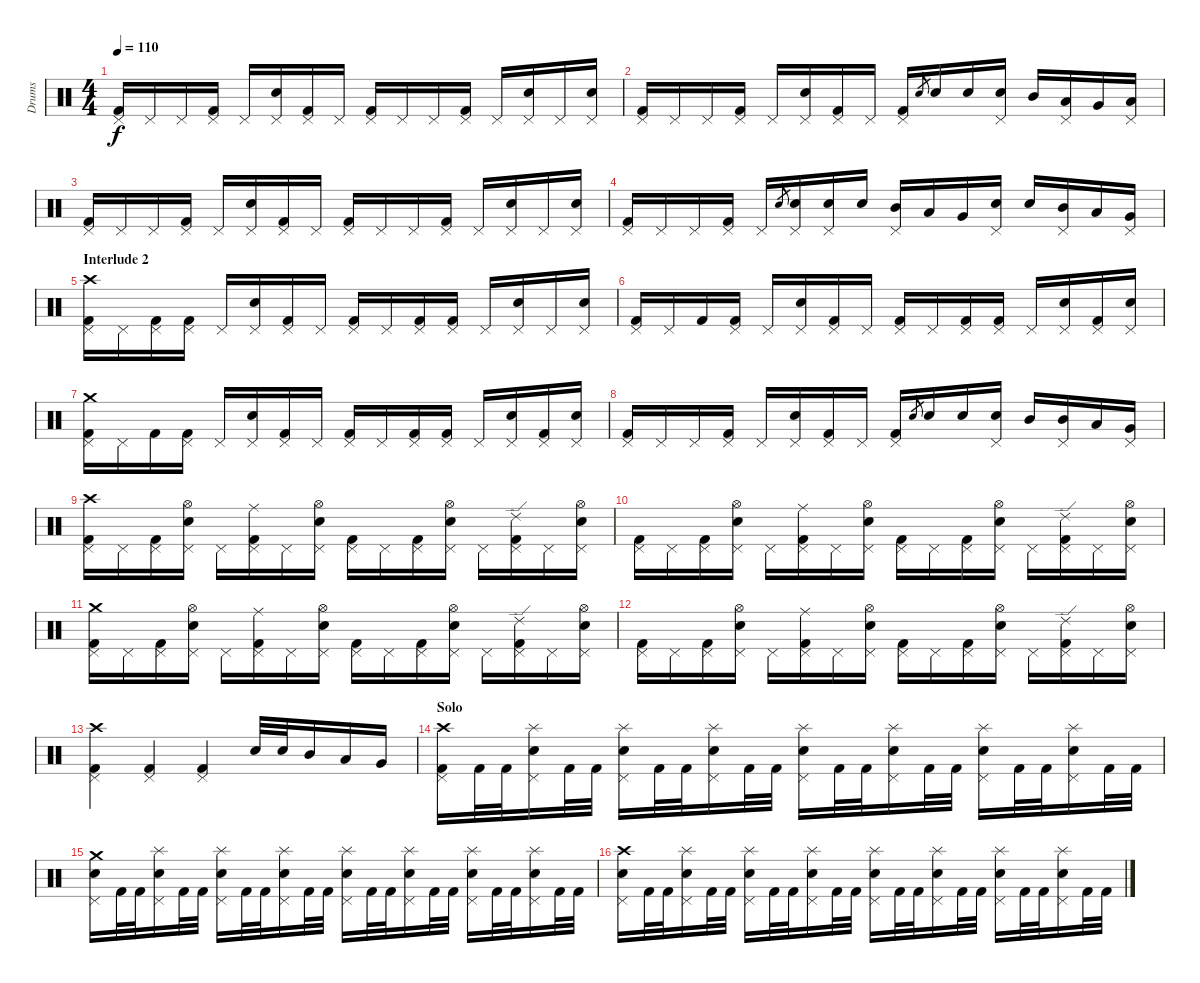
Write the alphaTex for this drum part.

\track ("Drums" "Drums") {instrument percussion}
\staff {score}
\articulation defaults
\ts (4 4)
\tempo 110
\clef neutral
\ks c
("Kick (hit) 2" "Pedal Hi-Hat (hit)").16{dy f} "Pedal Hi-Hat (hit)".16 "Pedal Hi-Hat (hit)".16 ("Kick (hit) 2" "Pedal Hi-Hat (hit)").16 "Pedal Hi-Hat (hit)".16 ("Snare (hit) 2" "Pedal Hi-Hat (hit)").16 ("Kick (hit) 2" "Pedal Hi-Hat (hit)").16 "Pedal Hi-Hat (hit)".16 ("Kick (hit) 2" "Pedal Hi-Hat (hit)").16 "Pedal Hi-Hat (hit)".16 "Pedal Hi-Hat (hit)".16 ("Kick (hit) 2" "Pedal Hi-Hat (hit)").16 "Pedal Hi-Hat (hit)".16 ("Snare (hit) 2" "Pedal Hi-Hat (hit)").16 "Pedal Hi-Hat (hit)".16 ("Snare (hit) 2" "Pedal Hi-Hat (hit)").16 |
("Kick (hit) 2" "Pedal Hi-Hat (hit)").16 "Pedal Hi-Hat (hit)".16 "Pedal Hi-Hat (hit)".16 ("Kick (hit) 2" "Pedal Hi-Hat (hit)").16 "Pedal Hi-Hat (hit)".16 ("Snare (hit) 2" "Pedal Hi-Hat (hit)").16 ("Kick (hit) 2" "Pedal Hi-Hat (hit)").16 "Pedal Hi-Hat (hit)".16 ("Kick (hit) 2" "Pedal Hi-Hat (hit)").16 "Snare (hit) 2".8{gr} "Snare (hit) 2".16 "Snare (hit) 2".16 ("Snare (hit) 2" "Pedal Hi-Hat (hit)").16 "Mid Tom (hit)".16 ("Low Tom (hit)" "Pedal Hi-Hat (hit)").16 "Very Low Tom (hit)".16 ("Low Floor Tom (hit)" "Pedal Hi-Hat (hit)").16 |
("Kick (hit) 2" "Pedal Hi-Hat (hit)").16 "Pedal Hi-Hat (hit)".16 "Pedal Hi-Hat (hit)".16 ("Kick (hit) 2" "Pedal Hi-Hat (hit)").16 "Pedal Hi-Hat (hit)".16 ("Snare (hit) 2" "Pedal Hi-Hat (hit)").16 ("Kick (hit) 2" "Pedal Hi-Hat (hit)").16 "Pedal Hi-Hat (hit)".16 ("Kick (hit) 2" "Pedal Hi-Hat (hit)").16 "Pedal Hi-Hat (hit)".16 "Pedal Hi-Hat (hit)".16 ("Kick (hit) 2" "Pedal Hi-Hat (hit)").16 "Pedal Hi-Hat (hit)".16 ("Snare (hit) 2" "Pedal Hi-Hat (hit)").16 "Pedal Hi-Hat (hit)".16 ("Snare (hit) 2" "Pedal Hi-Hat (hit)").16 |
("Kick (hit) 2" "Pedal Hi-Hat (hit)").16 "Pedal Hi-Hat (hit)".16 "Pedal Hi-Hat (hit)".16 ("Kick (hit) 2" "Pedal Hi-Hat (hit)").16 "Pedal Hi-Hat (hit)".16 "Snare (hit) 2".8{gr} ("Snare (hit) 2" "Pedal Hi-Hat (hit)").16 ("Snare (hit) 2" "Pedal Hi-Hat (hit)").16 "Snare (hit) 2".16 ("Mid Tom (hit)" "Pedal Hi-Hat (hit)").16 "Low Tom (hit)".16 "Very Low Tom (hit)".16 ("Snare (hit) 2" "Pedal Hi-Hat (hit)").16 "Snare (hit) 2".16 ("Mid Tom (hit)" "Pedal Hi-Hat (hit)").16 "Low Tom (hit)".16 ("Very Low Tom (hit)" "Pedal Hi-Hat (hit)").16 |
\section ("" "Interlude 2")
("Kick (hit) 2" "Pedal Hi-Hat (hit)" "Crash high (hit)").16 "Pedal Hi-Hat (hit)".16 ("Kick (hit) 2" "Pedal Hi-Hat (hit)").16 ("Kick (hit) 2" "Pedal Hi-Hat (hit)").16 "Pedal Hi-Hat (hit)".16 ("Snare (hit) 2" "Pedal Hi-Hat (hit)").16 ("Kick (hit) 2" "Pedal Hi-Hat (hit)").16 "Pedal Hi-Hat (hit)".16 ("Kick (hit) 2" "Pedal Hi-Hat (hit)").16 "Pedal Hi-Hat (hit)".16 ("Kick (hit) 2" "Pedal Hi-Hat (hit)").16 ("Kick (hit) 2" "Pedal Hi-Hat (hit)").16 "Pedal Hi-Hat (hit)".16 ("Snare (hit) 2" "Pedal Hi-Hat (hit)").16 "Pedal Hi-Hat (hit)".16 ("Snare (hit) 2" "Pedal Hi-Hat (hit)").16 |
("Kick (hit) 2" "Pedal Hi-Hat (hit)").16 "Pedal Hi-Hat (hit)".16 "Kick (hit) 2".16 ("Kick (hit) 2" "Pedal Hi-Hat (hit)").16 "Pedal Hi-Hat (hit)".16 ("Snare (hit) 2" "Pedal Hi-Hat (hit)").16 ("Kick (hit) 2" "Pedal Hi-Hat (hit)").16 "Pedal Hi-Hat (hit)".16 ("Kick (hit) 2" "Pedal Hi-Hat (hit)").16 "Pedal Hi-Hat (hit)".16 ("Kick (hit) 2" "Pedal Hi-Hat (hit)").16 ("Kick (hit) 2" "Pedal Hi-Hat (hit)").16 "Pedal Hi-Hat (hit)".16 ("Snare (hit) 2" "Pedal Hi-Hat (hit)").16 ("Kick (hit) 2" "Pedal Hi-Hat (hit)").16 ("Snare (hit) 2" "Pedal Hi-Hat (hit)").16 |
("Kick (hit) 2" "Pedal Hi-Hat (hit)" "Crash medium (hit)").16 "Pedal Hi-Hat (hit)".16 "Kick (hit) 2".16 ("Kick (hit) 2" "Pedal Hi-Hat (hit)").16 "Pedal Hi-Hat (hit)".16 ("Snare (hit) 2" "Pedal Hi-Hat (hit)").16 ("Kick (hit) 2" "Pedal Hi-Hat (hit)").16 "Pedal Hi-Hat (hit)".16 ("Kick (hit) 2" "Pedal Hi-Hat (hit)").16 "Pedal Hi-Hat (hit)".16 ("Kick (hit) 2" "Pedal Hi-Hat (hit)").16 ("Kick (hit) 2" "Pedal Hi-Hat (hit)").16 "Pedal Hi-Hat (hit)".16 ("Snare (hit) 2" "Pedal Hi-Hat (hit)").16 ("Kick (hit) 2" "Pedal Hi-Hat (hit)").16 ("Snare (hit) 2" "Pedal Hi-Hat (hit)").16 |
("Kick (hit) 2" "Pedal Hi-Hat (hit)").16 "Pedal Hi-Hat (hit)".16 "Pedal Hi-Hat (hit)".16 ("Kick (hit) 2" "Pedal Hi-Hat (hit)").16 "Pedal Hi-Hat (hit)".16 ("Snare (hit) 2" "Pedal Hi-Hat (hit)").16 ("Kick (hit) 2" "Pedal Hi-Hat (hit)").16 "Pedal Hi-Hat (hit)".16 ("Kick (hit) 2" "Pedal Hi-Hat (hit)").16 "Snare (hit) 2".8{gr} "Snare (hit) 2".16 "Snare (hit) 2".16 ("Snare (hit) 2" "Pedal Hi-Hat (hit)").16 "Mid Tom (hit)".16 ("Mid Tom (hit)" "Pedal Hi-Hat (hit)").16 "Low Tom (hit)".16 ("Very Low Tom (hit)" "Pedal Hi-Hat (hit)").16 |
("Kick (hit) 2" "Pedal Hi-Hat (hit)" "Crash high (hit)").16 "Pedal Hi-Hat (hit)".16 ("Kick (hit) 2" "Pedal Hi-Hat (hit)").16 ("Snare (hit) 2" "Pedal Hi-Hat (hit)" "Hi-Hat (open)").16 "Pedal Hi-Hat (hit)".16 ("Kick (hit) 2" "Pedal Hi-Hat (hit)" "Ride (middle)").16 "Pedal Hi-Hat (hit)".16 ("Snare (hit) 2" "Pedal Hi-Hat (hit)" "Hi-Hat (open)").16 ("Kick (hit) 2" "Pedal Hi-Hat (hit)").16 "Pedal Hi-Hat (hit)".16 ("Kick (hit) 2" "Pedal Hi-Hat (hit)").16 ("Snare (hit) 2" "Pedal Hi-Hat (hit)" "Hi-Hat (open)").16 "Pedal Hi-Hat (hit)".16 ("Kick (hit) 2" "Pedal Hi-Hat (hit)" "Ride (edge) 2").16 "Pedal Hi-Hat (hit)".16 ("Snare (hit) 2" "Pedal Hi-Hat (hit)" "Hi-Hat (open)").16 |
("Kick (hit) 2" "Pedal Hi-Hat (hit)").16 "Pedal Hi-Hat (hit)".16 ("Kick (hit) 2" "Pedal Hi-Hat (hit)").16 ("Snare (hit) 2" "Pedal Hi-Hat (hit)" "Hi-Hat (open)").16 "Pedal Hi-Hat (hit)".16 ("Kick (hit) 2" "Pedal Hi-Hat (hit)" "Ride (middle)").16 "Pedal Hi-Hat (hit)".16 ("Snare (hit) 2" "Pedal Hi-Hat (hit)" "Hi-Hat (open)").16 ("Kick (hit) 2" "Pedal Hi-Hat (hit)").16 "Pedal Hi-Hat (hit)".16 ("Kick (hit) 2" "Pedal Hi-Hat (hit)").16 ("Snare (hit) 2" "Pedal Hi-Hat (hit)" "Hi-Hat (open)").16 "Pedal Hi-Hat (hit)".16 ("Kick (hit) 2" "Pedal Hi-Hat (hit)" "Ride (edge) 2").16 "Pedal Hi-Hat (hit)".16 ("Snare (hit) 2" "Pedal Hi-Hat (hit)" "Hi-Hat (open)").16 |
("Kick (hit) 2" "Pedal Hi-Hat (hit)" "Crash medium (hit)").16 "Pedal Hi-Hat (hit)".16 ("Kick (hit) 2" "Pedal Hi-Hat (hit)").16 ("Snare (hit) 2" "Pedal Hi-Hat (hit)" "Hi-Hat (open)").16 "Pedal Hi-Hat (hit)".16 ("Kick (hit) 2" "Pedal Hi-Hat (hit)" "Ride (middle)").16 "Pedal Hi-Hat (hit)".16 ("Snare (hit) 2" "Pedal Hi-Hat (hit)" "Hi-Hat (open)").16 ("Kick (hit) 2" "Pedal Hi-Hat (hit)").16 "Pedal Hi-Hat (hit)".16 ("Kick (hit) 2" "Pedal Hi-Hat (hit)").16 ("Snare (hit) 2" "Pedal Hi-Hat (hit)" "Hi-Hat (open)").16 "Pedal Hi-Hat (hit)".16 ("Kick (hit) 2" "Pedal Hi-Hat (hit)" "Ride (edge) 2").16 "Pedal Hi-Hat (hit)".16 ("Snare (hit) 2" "Pedal Hi-Hat (hit)" "Hi-Hat (open)").16 |
("Kick (hit) 2" "Pedal Hi-Hat (hit)").16 "Pedal Hi-Hat (hit)".16 ("Kick (hit) 2" "Pedal Hi-Hat (hit)").16 ("Snare (hit) 2" "Pedal Hi-Hat (hit)" "Hi-Hat (open)").16 "Pedal Hi-Hat (hit)".16 ("Kick (hit) 2" "Pedal Hi-Hat (hit)" "Ride (middle)").16 "Pedal Hi-Hat (hit)".16 ("Snare (hit) 2" "Pedal Hi-Hat (hit)" "Hi-Hat (open)").16 ("Kick (hit) 2" "Pedal Hi-Hat (hit)").16 "Pedal Hi-Hat (hit)".16 ("Kick (hit) 2" "Pedal Hi-Hat (hit)").16 ("Snare (hit) 2" "Pedal Hi-Hat (hit)" "Hi-Hat (open)").16 "Pedal Hi-Hat (hit)".16 ("Kick (hit) 2" "Pedal Hi-Hat (hit)" "Ride (edge) 2").16 "Pedal Hi-Hat (hit)".16 ("Snare (hit) 2" "Pedal Hi-Hat (hit)" "Hi-Hat (open)").16 |
("Kick (hit) 2" "Pedal Hi-Hat (hit)" "Crash high (hit)").4 ("Kick (hit) 2" "Pedal Hi-Hat (hit)").4 ("Kick (hit) 2" "Pedal Hi-Hat (hit)").4 "Snare (hit) 2".32 "Snare (hit) 2".32 "Mid Tom (hit)".16 "Low Tom (hit)".16 "Very Low Tom (hit)".16 |
\section ("" "Solo")
("Kick (hit) 2" "Pedal Hi-Hat (hit)" "Crash high (hit)").16 "Kick (hit) 2".32 "Kick (hit) 2".32 ("Snare (hit) 2" "Pedal Hi-Hat (hit)" "Splash (hit)").16 "Kick (hit) 2".32 "Kick (hit) 2".32 ("Snare (hit) 2" "Pedal Hi-Hat (hit)" "Splash (hit)").16 "Kick (hit) 2".32 "Kick (hit) 2".32 ("Snare (hit) 2" "Pedal Hi-Hat (hit)" "Splash (hit)").16 "Kick (hit) 2".32 "Kick (hit) 2".32 ("Snare (hit) 2" "Pedal Hi-Hat (hit)" "Splash (hit)").16 "Kick (hit) 2".32 "Kick (hit) 2".32 ("Snare (hit) 2" "Pedal Hi-Hat (hit)" "Splash (hit)").16 "Kick (hit) 2".32 "Kick (hit) 2".32 ("Snare (hit) 2" "Pedal Hi-Hat (hit)" "Splash (hit)").16 "Kick (hit) 2".32 "Kick (hit) 2".32 ("Snare (hit) 2" "Pedal Hi-Hat (hit)" "Splash (hit)").16 "Kick (hit) 2".32 "Kick (hit) 2".32 |
("Snare (hit) 2" "Pedal Hi-Hat (hit)" "Crash medium (hit)").16 "Kick (hit) 2".32 "Kick (hit) 2".32 ("Snare (hit) 2" "Pedal Hi-Hat (hit)" "Splash (hit)").16 "Kick (hit) 2".32 "Kick (hit) 2".32 ("Snare (hit) 2" "Pedal Hi-Hat (hit)" "Splash (hit)").16 "Kick (hit) 2".32 "Kick (hit) 2".32 ("Snare (hit) 2" "Pedal Hi-Hat (hit)" "Splash (hit)").16 "Kick (hit) 2".32 "Kick (hit) 2".32 ("Snare (hit) 2" "Pedal Hi-Hat (hit)" "Splash (hit)").16 "Kick (hit) 2".32 "Kick (hit) 2".32 ("Snare (hit) 2" "Pedal Hi-Hat (hit)" "Splash (hit)").16 "Kick (hit) 2".32 "Kick (hit) 2".32 ("Snare (hit) 2" "Pedal Hi-Hat (hit)" "Splash (hit)").16 "Kick (hit) 2".32 "Kick (hit) 2".32 ("Snare (hit) 2" "Pedal Hi-Hat (hit)" "Splash (hit)").16 "Kick (hit) 2".32 "Kick (hit) 2".32 |
("Snare (hit) 2" "Pedal Hi-Hat (hit)" "Crash high (hit)").16 "Kick (hit) 2".32 "Kick (hit) 2".32 ("Snare (hit) 2" "Pedal Hi-Hat (hit)" "Splash (hit)").16 "Kick (hit) 2".32 "Kick (hit) 2".32 ("Snare (hit) 2" "Pedal Hi-Hat (hit)" "Splash (hit)").16 "Kick (hit) 2".32 "Kick (hit) 2".32 ("Snare (hit) 2" "Pedal Hi-Hat (hit)" "Splash (hit)").16 "Kick (hit) 2".32 "Kick (hit) 2".32 ("Snare (hit) 2" "Pedal Hi-Hat (hit)" "Splash (hit)").16 "Kick (hit) 2".32 "Kick (hit) 2".32 ("Snare (hit) 2" "Pedal Hi-Hat (hit)" "Splash (hit)").16 "Kick (hit) 2".32 "Kick (hit) 2".32 ("Snare (hit) 2" "Pedal Hi-Hat (hit)" "Splash (hit)").16 "Kick (hit) 2".32 "Kick (hit) 2".32 ("Snare (hit) 2" "Pedal Hi-Hat (hit)" "Splash (hit)").16 "Kick (hit) 2".32 "Kick (hit) 2".32
